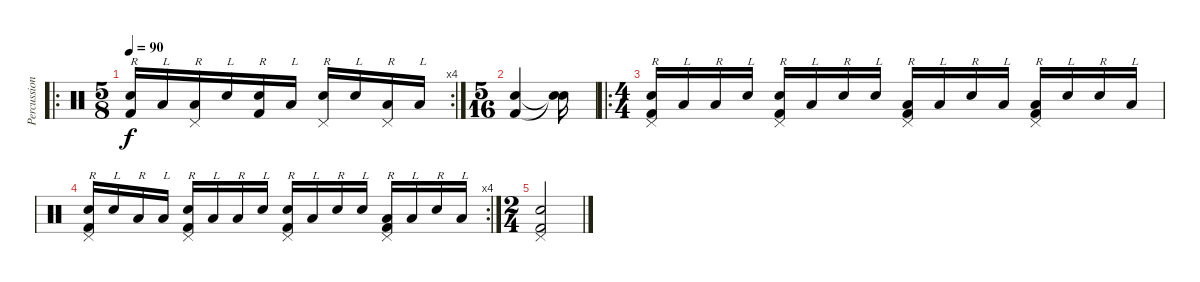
\track ("Percussion" "Percussion") {instrument percussion}
\staff {score}
\articulation defaults
\ro
\rc 4
\ts (5 8)
\tempo 90
\clef neutral
\ks c
("Electric Snare (hit)" "Kick (hit) 2").16{txt "R" dy f} "Low Floor Tom (hit)".16{txt "L"} ("Low Floor Tom (hit)" "Pedal Hi-Hat (hit)").16{txt "R"} "Electric Snare (hit)".16{txt "L"} ("Electric Snare (hit)" "Kick (hit) 2").16{txt "R"} "Low Floor Tom (hit)".16{txt "L"} ("Electric Snare (hit)" "Pedal Hi-Hat (hit)").16{txt "R"} "Electric Snare (hit)".16{txt "L"} ("Low Floor Tom (hit)" "Pedal Hi-Hat (hit)").16{txt "R"} "Low Floor Tom (hit)".16{txt "L"} |
\ts (5 16)
("Electric Snare (hit)" "Kick (hit) 2").4 ("Snare (hit)"{t} "Snare (hit)"{t}).16 |
\ro
\ts (4 4)
("Electric Snare (hit)" "Kick (hit) 2" "Pedal Hi-Hat (hit)").16{txt "R"} "Low Floor Tom (hit)".16{txt "L"} "Low Floor Tom (hit)".16{txt "R"} "Electric Snare (hit)".16{txt "L"} ("Electric Snare (hit)" "Kick (hit) 2" "Pedal Hi-Hat (hit)").16{txt "R"} "Low Floor Tom (hit)".16{txt "L"} "Electric Snare (hit)".16{txt "R"} "Electric Snare (hit)".16{txt "L"} ("Low Floor Tom (hit)" "Kick (hit) 2" "Pedal Hi-Hat (hit)").16{txt "R"} "Low Floor Tom (hit)".16{txt "L"} "Electric Snare (hit)".16{txt "R"} "Low Floor Tom (hit)".16{txt "L"} ("Low Floor Tom (hit)" "Kick (hit) 2" "Pedal Hi-Hat (hit)").16{txt "R"} "Electric Snare (hit)".16{txt "L"} "Electric Snare (hit)".16{txt "R"} "Low Floor Tom (hit)".16{txt "L"} |
\rc 4
("Electric Snare (hit)" "Pedal Hi-Hat (hit)" "Kick (hit) 2").16{txt "R"} "Electric Snare (hit)".16{txt "L"} "Low Floor Tom (hit)".16{txt "R"} "Low Floor Tom (hit)".16{txt "L"} ("Electric Snare (hit)" "Pedal Hi-Hat (hit)" "Kick (hit) 2").16{txt "R"} "Low Floor Tom (hit)".16{txt "L"} "Low Floor Tom (hit)".16{txt "R"} "Electric Snare (hit)".16{txt "L"} ("Electric Snare (hit)" "Pedal Hi-Hat (hit)" "Kick (hit) 2").16{txt "R"} "Low Floor Tom (hit)".16{txt "L"} "Electric Snare (hit)".16{txt "R"} "Electric Snare (hit)".16{txt "L"} ("Low Floor Tom (hit)" "Pedal Hi-Hat (hit)" "Kick (hit) 2").16{txt "R"} "Low Floor Tom (hit)".16{txt "L"} "Electric Snare (hit)".16{txt "R"} "Low Floor Tom (hit)".16{txt "L"} |
\ts (2 4)
("Electric Snare (hit)" "Kick (hit) 2" "Pedal Hi-Hat (hit)").2
